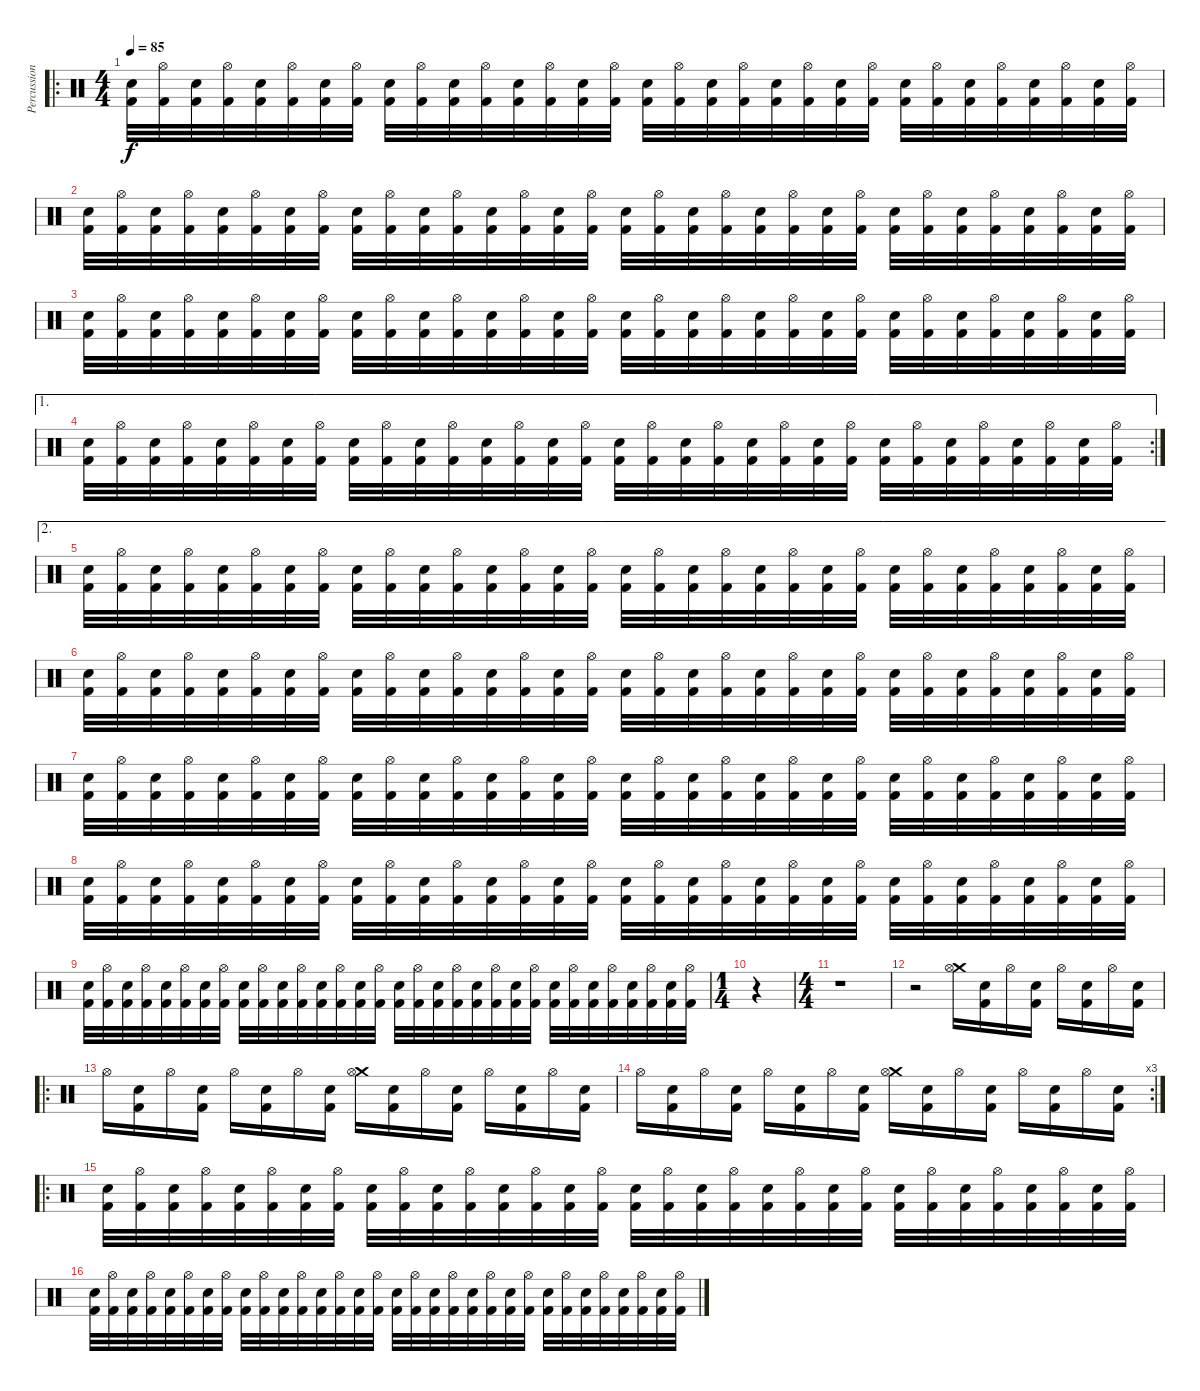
\track ("Percussion" "Percussion") {instrument percussion}
\staff {score}
\articulation defaults
\ro
\ts (4 4)
\tempo 85
\clef neutral
\ks c
("Electric Snare (hit)" "Kick (hit) 2").32{dy f} ("Hi-Hat (open)" "Kick (hit) 2").32 ("Electric Snare (hit)" "Kick (hit) 2").32 ("Hi-Hat (open)" "Kick (hit) 2").32 ("Electric Snare (hit)" "Kick (hit) 2").32 ("Hi-Hat (open)" "Kick (hit) 2").32 ("Electric Snare (hit)" "Kick (hit) 2").32 ("Hi-Hat (open)" "Kick (hit) 2").32 ("Electric Snare (hit)" "Kick (hit) 2").32 ("Hi-Hat (open)" "Kick (hit) 2").32 ("Electric Snare (hit)" "Kick (hit) 2").32 ("Hi-Hat (open)" "Kick (hit) 2").32 ("Electric Snare (hit)" "Kick (hit) 2").32 ("Hi-Hat (open)" "Kick (hit) 2").32 ("Electric Snare (hit)" "Kick (hit) 2").32 ("Hi-Hat (open)" "Kick (hit) 2").32 ("Electric Snare (hit)" "Kick (hit) 2").32 ("Hi-Hat (open)" "Kick (hit) 2").32 ("Electric Snare (hit)" "Kick (hit) 2").32 ("Hi-Hat (open)" "Kick (hit) 2").32 ("Electric Snare (hit)" "Kick (hit) 2").32 ("Hi-Hat (open)" "Kick (hit) 2").32 ("Electric Snare (hit)" "Kick (hit) 2").32 ("Hi-Hat (open)" "Kick (hit) 2").32 ("Electric Snare (hit)" "Kick (hit) 2").32 ("Hi-Hat (open)" "Kick (hit) 2").32 ("Electric Snare (hit)" "Kick (hit) 2").32 ("Hi-Hat (open)" "Kick (hit) 2").32 ("Electric Snare (hit)" "Kick (hit) 2").32 ("Hi-Hat (open)" "Kick (hit) 2").32 ("Electric Snare (hit)" "Kick (hit) 2").32 ("Hi-Hat (open)" "Kick (hit) 2").32 |
("Electric Snare (hit)" "Kick (hit) 2").32 ("Hi-Hat (open)" "Kick (hit) 2").32 ("Electric Snare (hit)" "Kick (hit) 2").32 ("Hi-Hat (open)" "Kick (hit) 2").32 ("Electric Snare (hit)" "Kick (hit) 2").32 ("Hi-Hat (open)" "Kick (hit) 2").32 ("Electric Snare (hit)" "Kick (hit) 2").32 ("Hi-Hat (open)" "Kick (hit) 2").32 ("Electric Snare (hit)" "Kick (hit) 2").32 ("Hi-Hat (open)" "Kick (hit) 2").32 ("Electric Snare (hit)" "Kick (hit) 2").32 ("Hi-Hat (open)" "Kick (hit) 2").32 ("Electric Snare (hit)" "Kick (hit) 2").32 ("Hi-Hat (open)" "Kick (hit) 2").32 ("Electric Snare (hit)" "Kick (hit) 2").32 ("Hi-Hat (open)" "Kick (hit) 2").32 ("Electric Snare (hit)" "Kick (hit) 2").32 ("Hi-Hat (open)" "Kick (hit) 2").32 ("Electric Snare (hit)" "Kick (hit) 2").32 ("Hi-Hat (open)" "Kick (hit) 2").32 ("Electric Snare (hit)" "Kick (hit) 2").32 ("Hi-Hat (open)" "Kick (hit) 2").32 ("Electric Snare (hit)" "Kick (hit) 2").32 ("Hi-Hat (open)" "Kick (hit) 2").32 ("Electric Snare (hit)" "Kick (hit) 2").32 ("Hi-Hat (open)" "Kick (hit) 2").32 ("Electric Snare (hit)" "Kick (hit) 2").32 ("Hi-Hat (open)" "Kick (hit) 2").32 ("Electric Snare (hit)" "Kick (hit) 2").32 ("Hi-Hat (open)" "Kick (hit) 2").32 ("Electric Snare (hit)" "Kick (hit) 2").32 ("Hi-Hat (open)" "Kick (hit) 2").32 |
("Electric Snare (hit)" "Kick (hit) 2").32 ("Hi-Hat (open)" "Kick (hit) 2").32 ("Electric Snare (hit)" "Kick (hit) 2").32 ("Hi-Hat (open)" "Kick (hit) 2").32 ("Electric Snare (hit)" "Kick (hit) 2").32 ("Hi-Hat (open)" "Kick (hit) 2").32 ("Electric Snare (hit)" "Kick (hit) 2").32 ("Hi-Hat (open)" "Kick (hit) 2").32 ("Electric Snare (hit)" "Kick (hit) 2").32 ("Hi-Hat (open)" "Kick (hit) 2").32 ("Electric Snare (hit)" "Kick (hit) 2").32 ("Hi-Hat (open)" "Kick (hit) 2").32 ("Electric Snare (hit)" "Kick (hit) 2").32 ("Hi-Hat (open)" "Kick (hit) 2").32 ("Electric Snare (hit)" "Kick (hit) 2").32 ("Hi-Hat (open)" "Kick (hit) 2").32 ("Electric Snare (hit)" "Kick (hit) 2").32 ("Hi-Hat (open)" "Kick (hit) 2").32 ("Electric Snare (hit)" "Kick (hit) 2").32 ("Hi-Hat (open)" "Kick (hit) 2").32 ("Electric Snare (hit)" "Kick (hit) 2").32 ("Hi-Hat (open)" "Kick (hit) 2").32 ("Electric Snare (hit)" "Kick (hit) 2").32 ("Hi-Hat (open)" "Kick (hit) 2").32 ("Electric Snare (hit)" "Kick (hit) 2").32 ("Hi-Hat (open)" "Kick (hit) 2").32 ("Electric Snare (hit)" "Kick (hit) 2").32 ("Hi-Hat (open)" "Kick (hit) 2").32 ("Electric Snare (hit)" "Kick (hit) 2").32 ("Hi-Hat (open)" "Kick (hit) 2").32 ("Electric Snare (hit)" "Kick (hit) 2").32 ("Hi-Hat (open)" "Kick (hit) 2").32 |
\ae 1
\rc 2
("Electric Snare (hit)" "Kick (hit) 2").32 ("Hi-Hat (open)" "Kick (hit) 2").32 ("Electric Snare (hit)" "Kick (hit) 2").32 ("Hi-Hat (open)" "Kick (hit) 2").32 ("Electric Snare (hit)" "Kick (hit) 2").32 ("Hi-Hat (open)" "Kick (hit) 2").32 ("Electric Snare (hit)" "Kick (hit) 2").32 ("Hi-Hat (open)" "Kick (hit) 2").32 ("Electric Snare (hit)" "Kick (hit) 2").32 ("Hi-Hat (open)" "Kick (hit) 2").32 ("Electric Snare (hit)" "Kick (hit) 2").32 ("Hi-Hat (open)" "Kick (hit) 2").32 ("Electric Snare (hit)" "Kick (hit) 2").32 ("Hi-Hat (open)" "Kick (hit) 2").32 ("Electric Snare (hit)" "Kick (hit) 2").32 ("Hi-Hat (open)" "Kick (hit) 2").32 ("Electric Snare (hit)" "Kick (hit) 2").32 ("Hi-Hat (open)" "Kick (hit) 2").32 ("Electric Snare (hit)" "Kick (hit) 2").32 ("Hi-Hat (open)" "Kick (hit) 2").32 ("Electric Snare (hit)" "Kick (hit) 2").32 ("Hi-Hat (open)" "Kick (hit) 2").32 ("Electric Snare (hit)" "Kick (hit) 2").32 ("Hi-Hat (open)" "Kick (hit) 2").32 ("Electric Snare (hit)" "Kick (hit) 2").32 ("Hi-Hat (open)" "Kick (hit) 2").32 ("Electric Snare (hit)" "Kick (hit) 2").32 ("Hi-Hat (open)" "Kick (hit) 2").32 ("Electric Snare (hit)" "Kick (hit) 2").32 ("Hi-Hat (open)" "Kick (hit) 2").32 ("Electric Snare (hit)" "Kick (hit) 2").32 ("Hi-Hat (open)" "Kick (hit) 2").32 |
\ae 2
("Electric Snare (hit)" "Kick (hit) 2").32 ("Hi-Hat (open)" "Kick (hit) 2").32 ("Electric Snare (hit)" "Kick (hit) 2").32 ("Hi-Hat (open)" "Kick (hit) 2").32 ("Electric Snare (hit)" "Kick (hit) 2").32 ("Hi-Hat (open)" "Kick (hit) 2").32 ("Electric Snare (hit)" "Kick (hit) 2").32 ("Hi-Hat (open)" "Kick (hit) 2").32 ("Electric Snare (hit)" "Kick (hit) 2").32 ("Hi-Hat (open)" "Kick (hit) 2").32 ("Electric Snare (hit)" "Kick (hit) 2").32 ("Hi-Hat (open)" "Kick (hit) 2").32 ("Electric Snare (hit)" "Kick (hit) 2").32 ("Hi-Hat (open)" "Kick (hit) 2").32 ("Electric Snare (hit)" "Kick (hit) 2").32 ("Hi-Hat (open)" "Kick (hit) 2").32 ("Electric Snare (hit)" "Kick (hit) 2").32 ("Hi-Hat (open)" "Kick (hit) 2").32 ("Electric Snare (hit)" "Kick (hit) 2").32 ("Hi-Hat (open)" "Kick (hit) 2").32 ("Electric Snare (hit)" "Kick (hit) 2").32 ("Hi-Hat (open)" "Kick (hit) 2").32 ("Electric Snare (hit)" "Kick (hit) 2").32 ("Hi-Hat (open)" "Kick (hit) 2").32 ("Electric Snare (hit)" "Kick (hit) 2").32 ("Hi-Hat (open)" "Kick (hit) 2").32 ("Electric Snare (hit)" "Kick (hit) 2").32 ("Hi-Hat (open)" "Kick (hit) 2").32 ("Electric Snare (hit)" "Kick (hit) 2").32 ("Hi-Hat (open)" "Kick (hit) 2").32 ("Electric Snare (hit)" "Kick (hit) 2").32 ("Hi-Hat (open)" "Kick (hit) 2").32 |
("Electric Snare (hit)" "Kick (hit) 2").32 ("Hi-Hat (open)" "Kick (hit) 2").32 ("Electric Snare (hit)" "Kick (hit) 2").32 ("Hi-Hat (open)" "Kick (hit) 2").32 ("Electric Snare (hit)" "Kick (hit) 2").32 ("Hi-Hat (open)" "Kick (hit) 2").32 ("Electric Snare (hit)" "Kick (hit) 2").32 ("Hi-Hat (open)" "Kick (hit) 2").32 ("Electric Snare (hit)" "Kick (hit) 2").32 ("Hi-Hat (open)" "Kick (hit) 2").32 ("Electric Snare (hit)" "Kick (hit) 2").32 ("Hi-Hat (open)" "Kick (hit) 2").32 ("Electric Snare (hit)" "Kick (hit) 2").32 ("Hi-Hat (open)" "Kick (hit) 2").32 ("Electric Snare (hit)" "Kick (hit) 2").32 ("Hi-Hat (open)" "Kick (hit) 2").32 ("Electric Snare (hit)" "Kick (hit) 2").32 ("Hi-Hat (open)" "Kick (hit) 2").32 ("Electric Snare (hit)" "Kick (hit) 2").32 ("Hi-Hat (open)" "Kick (hit) 2").32 ("Electric Snare (hit)" "Kick (hit) 2").32 ("Hi-Hat (open)" "Kick (hit) 2").32 ("Electric Snare (hit)" "Kick (hit) 2").32 ("Hi-Hat (open)" "Kick (hit) 2").32 ("Electric Snare (hit)" "Kick (hit) 2").32 ("Hi-Hat (open)" "Kick (hit) 2").32 ("Electric Snare (hit)" "Kick (hit) 2").32 ("Hi-Hat (open)" "Kick (hit) 2").32 ("Electric Snare (hit)" "Kick (hit) 2").32 ("Hi-Hat (open)" "Kick (hit) 2").32 ("Electric Snare (hit)" "Kick (hit) 2").32 ("Hi-Hat (open)" "Kick (hit) 2").32 |
("Electric Snare (hit)" "Kick (hit) 2").32 ("Hi-Hat (open)" "Kick (hit) 2").32 ("Electric Snare (hit)" "Kick (hit) 2").32 ("Hi-Hat (open)" "Kick (hit) 2").32 ("Electric Snare (hit)" "Kick (hit) 2").32 ("Hi-Hat (open)" "Kick (hit) 2").32 ("Electric Snare (hit)" "Kick (hit) 2").32 ("Hi-Hat (open)" "Kick (hit) 2").32 ("Electric Snare (hit)" "Kick (hit) 2").32 ("Hi-Hat (open)" "Kick (hit) 2").32 ("Electric Snare (hit)" "Kick (hit) 2").32 ("Hi-Hat (open)" "Kick (hit) 2").32 ("Electric Snare (hit)" "Kick (hit) 2").32 ("Hi-Hat (open)" "Kick (hit) 2").32 ("Electric Snare (hit)" "Kick (hit) 2").32 ("Hi-Hat (open)" "Kick (hit) 2").32 ("Electric Snare (hit)" "Kick (hit) 2").32 ("Hi-Hat (open)" "Kick (hit) 2").32 ("Electric Snare (hit)" "Kick (hit) 2").32 ("Hi-Hat (open)" "Kick (hit) 2").32 ("Electric Snare (hit)" "Kick (hit) 2").32 ("Hi-Hat (open)" "Kick (hit) 2").32 ("Electric Snare (hit)" "Kick (hit) 2").32 ("Hi-Hat (open)" "Kick (hit) 2").32 ("Electric Snare (hit)" "Kick (hit) 2").32 ("Hi-Hat (open)" "Kick (hit) 2").32 ("Electric Snare (hit)" "Kick (hit) 2").32 ("Hi-Hat (open)" "Kick (hit) 2").32 ("Electric Snare (hit)" "Kick (hit) 2").32 ("Hi-Hat (open)" "Kick (hit) 2").32 ("Electric Snare (hit)" "Kick (hit) 2").32 ("Hi-Hat (open)" "Kick (hit) 2").32 |
("Electric Snare (hit)" "Kick (hit) 2").32 ("Hi-Hat (open)" "Kick (hit) 2").32 ("Electric Snare (hit)" "Kick (hit) 2").32 ("Hi-Hat (open)" "Kick (hit) 2").32 ("Electric Snare (hit)" "Kick (hit) 2").32 ("Hi-Hat (open)" "Kick (hit) 2").32 ("Electric Snare (hit)" "Kick (hit) 2").32 ("Hi-Hat (open)" "Kick (hit) 2").32 ("Electric Snare (hit)" "Kick (hit) 2").32 ("Hi-Hat (open)" "Kick (hit) 2").32 ("Electric Snare (hit)" "Kick (hit) 2").32 ("Hi-Hat (open)" "Kick (hit) 2").32 ("Electric Snare (hit)" "Kick (hit) 2").32 ("Hi-Hat (open)" "Kick (hit) 2").32 ("Electric Snare (hit)" "Kick (hit) 2").32 ("Hi-Hat (open)" "Kick (hit) 2").32 ("Electric Snare (hit)" "Kick (hit) 2").32 ("Hi-Hat (open)" "Kick (hit) 2").32 ("Electric Snare (hit)" "Kick (hit) 2").32 ("Hi-Hat (open)" "Kick (hit) 2").32 ("Electric Snare (hit)" "Kick (hit) 2").32 ("Hi-Hat (open)" "Kick (hit) 2").32 ("Electric Snare (hit)" "Kick (hit) 2").32 ("Hi-Hat (open)" "Kick (hit) 2").32 ("Electric Snare (hit)" "Kick (hit) 2").32 ("Hi-Hat (open)" "Kick (hit) 2").32 ("Electric Snare (hit)" "Kick (hit) 2").32 ("Hi-Hat (open)" "Kick (hit) 2").32 ("Electric Snare (hit)" "Kick (hit) 2").32 ("Hi-Hat (open)" "Kick (hit) 2").32 ("Electric Snare (hit)" "Kick (hit) 2").32 ("Hi-Hat (open)" "Kick (hit) 2").32 |
("Electric Snare (hit)" "Kick (hit) 2").32 ("Hi-Hat (open)" "Kick (hit) 2").32 ("Electric Snare (hit)" "Kick (hit) 2").32 ("Hi-Hat (open)" "Kick (hit) 2").32 ("Electric Snare (hit)" "Kick (hit) 2").32 ("Hi-Hat (open)" "Kick (hit) 2").32 ("Electric Snare (hit)" "Kick (hit) 2").32 ("Hi-Hat (open)" "Kick (hit) 2").32 ("Electric Snare (hit)" "Kick (hit) 2").32 ("Hi-Hat (open)" "Kick (hit) 2").32 ("Electric Snare (hit)" "Kick (hit) 2").32 ("Hi-Hat (open)" "Kick (hit) 2").32 ("Electric Snare (hit)" "Kick (hit) 2").32 ("Hi-Hat (open)" "Kick (hit) 2").32 ("Electric Snare (hit)" "Kick (hit) 2").32 ("Hi-Hat (open)" "Kick (hit) 2").32 ("Electric Snare (hit)" "Kick (hit) 2").32 ("Hi-Hat (open)" "Kick (hit) 2").32 ("Electric Snare (hit)" "Kick (hit) 2").32 ("Hi-Hat (open)" "Kick (hit) 2").32 ("Electric Snare (hit)" "Kick (hit) 2").32 ("Hi-Hat (open)" "Kick (hit) 2").32 ("Electric Snare (hit)" "Kick (hit) 2").32 ("Hi-Hat (open)" "Kick (hit) 2").32 ("Electric Snare (hit)" "Kick (hit) 2").32 ("Hi-Hat (open)" "Kick (hit) 2").32 ("Electric Snare (hit)" "Kick (hit) 2").32 ("Hi-Hat (open)" "Kick (hit) 2").32 ("Electric Snare (hit)" "Kick (hit) 2").32 ("Hi-Hat (open)" "Kick (hit) 2").32 ("Electric Snare (hit)" "Kick (hit) 2").32 ("Hi-Hat (open)" "Kick (hit) 2").32 |
\ts (1 4)
r.4 |
\ts (4 4)
r.1 |
r.2 ("Crash medium (hit)" "Hi-Hat (open)").16 ("Electric Snare (hit)" "Kick (hit) 2").16 "Hi-Hat (open)".16 ("Electric Snare (hit)" "Kick (hit) 2").16 "Hi-Hat (open)".16 ("Electric Snare (hit)" "Kick (hit) 2").16 "Hi-Hat (open)".16 ("Electric Snare (hit)" "Kick (hit) 2").16 |
\ro "Hi-Hat (open)".16
("Electric Snare (hit)" "Kick (hit) 2").16 "Hi-Hat (open)".16 ("Electric Snare (hit)" "Kick (hit) 2").16 "Hi-Hat (open)".16 ("Electric Snare (hit)" "Kick (hit) 2").16 "Hi-Hat (open)".16 ("Electric Snare (hit)" "Kick (hit) 2").16 ("Crash medium (hit)" "Hi-Hat (open)").16 ("Electric Snare (hit)" "Kick (hit) 2").16 "Hi-Hat (open)".16 ("Electric Snare (hit)" "Kick (hit) 2").16 "Hi-Hat (open)".16 ("Electric Snare (hit)" "Kick (hit) 2").16 "Hi-Hat (open)".16 ("Electric Snare (hit)" "Kick (hit) 2").16 |
\rc 3 "Hi-Hat (open)".16
("Electric Snare (hit)" "Kick (hit) 2").16 "Hi-Hat (open)".16 ("Electric Snare (hit)" "Kick (hit) 2").16 "Hi-Hat (open)".16 ("Electric Snare (hit)" "Kick (hit) 2").16 "Hi-Hat (open)".16 ("Electric Snare (hit)" "Kick (hit) 2").16 ("Crash medium (hit)" "Hi-Hat (open)").16 ("Electric Snare (hit)" "Kick (hit) 2").16 "Hi-Hat (open)".16 ("Electric Snare (hit)" "Kick (hit) 2").16 "Hi-Hat (open)".16 ("Electric Snare (hit)" "Kick (hit) 2").16 "Hi-Hat (open)".16 ("Electric Snare (hit)" "Kick (hit) 2").16 |
\ro
("Electric Snare (hit)" "Kick (hit) 2").32 ("Hi-Hat (open)" "Kick (hit) 2").32 ("Electric Snare (hit)" "Kick (hit) 2").32 ("Hi-Hat (open)" "Kick (hit) 2").32 ("Electric Snare (hit)" "Kick (hit) 2").32 ("Hi-Hat (open)" "Kick (hit) 2").32 ("Electric Snare (hit)" "Kick (hit) 2").32 ("Hi-Hat (open)" "Kick (hit) 2").32 ("Electric Snare (hit)" "Kick (hit) 2").32 ("Hi-Hat (open)" "Kick (hit) 2").32 ("Electric Snare (hit)" "Kick (hit) 2").32 ("Hi-Hat (open)" "Kick (hit) 2").32 ("Electric Snare (hit)" "Kick (hit) 2").32 ("Hi-Hat (open)" "Kick (hit) 2").32 ("Electric Snare (hit)" "Kick (hit) 2").32 ("Hi-Hat (open)" "Kick (hit) 2").32 ("Electric Snare (hit)" "Kick (hit) 2").32 ("Hi-Hat (open)" "Kick (hit) 2").32 ("Electric Snare (hit)" "Kick (hit) 2").32 ("Hi-Hat (open)" "Kick (hit) 2").32 ("Electric Snare (hit)" "Kick (hit) 2").32 ("Hi-Hat (open)" "Kick (hit) 2").32 ("Electric Snare (hit)" "Kick (hit) 2").32 ("Hi-Hat (open)" "Kick (hit) 2").32 ("Electric Snare (hit)" "Kick (hit) 2").32 ("Hi-Hat (open)" "Kick (hit) 2").32 ("Electric Snare (hit)" "Kick (hit) 2").32 ("Hi-Hat (open)" "Kick (hit) 2").32 ("Electric Snare (hit)" "Kick (hit) 2").32 ("Hi-Hat (open)" "Kick (hit) 2").32 ("Electric Snare (hit)" "Kick (hit) 2").32 ("Hi-Hat (open)" "Kick (hit) 2").32 |
("Electric Snare (hit)" "Kick (hit) 2").32 ("Hi-Hat (open)" "Kick (hit) 2").32 ("Electric Snare (hit)" "Kick (hit) 2").32 ("Hi-Hat (open)" "Kick (hit) 2").32 ("Electric Snare (hit)" "Kick (hit) 2").32 ("Hi-Hat (open)" "Kick (hit) 2").32 ("Electric Snare (hit)" "Kick (hit) 2").32 ("Hi-Hat (open)" "Kick (hit) 2").32 ("Electric Snare (hit)" "Kick (hit) 2").32 ("Hi-Hat (open)" "Kick (hit) 2").32 ("Electric Snare (hit)" "Kick (hit) 2").32 ("Hi-Hat (open)" "Kick (hit) 2").32 ("Electric Snare (hit)" "Kick (hit) 2").32 ("Hi-Hat (open)" "Kick (hit) 2").32 ("Electric Snare (hit)" "Kick (hit) 2").32 ("Hi-Hat (open)" "Kick (hit) 2").32 ("Electric Snare (hit)" "Kick (hit) 2").32 ("Hi-Hat (open)" "Kick (hit) 2").32 ("Electric Snare (hit)" "Kick (hit) 2").32 ("Hi-Hat (open)" "Kick (hit) 2").32 ("Electric Snare (hit)" "Kick (hit) 2").32 ("Hi-Hat (open)" "Kick (hit) 2").32 ("Electric Snare (hit)" "Kick (hit) 2").32 ("Hi-Hat (open)" "Kick (hit) 2").32 ("Electric Snare (hit)" "Kick (hit) 2").32 ("Hi-Hat (open)" "Kick (hit) 2").32 ("Electric Snare (hit)" "Kick (hit) 2").32 ("Hi-Hat (open)" "Kick (hit) 2").32 ("Electric Snare (hit)" "Kick (hit) 2").32 ("Hi-Hat (open)" "Kick (hit) 2").32 ("Electric Snare (hit)" "Kick (hit) 2").32 ("Hi-Hat (open)" "Kick (hit) 2").32
